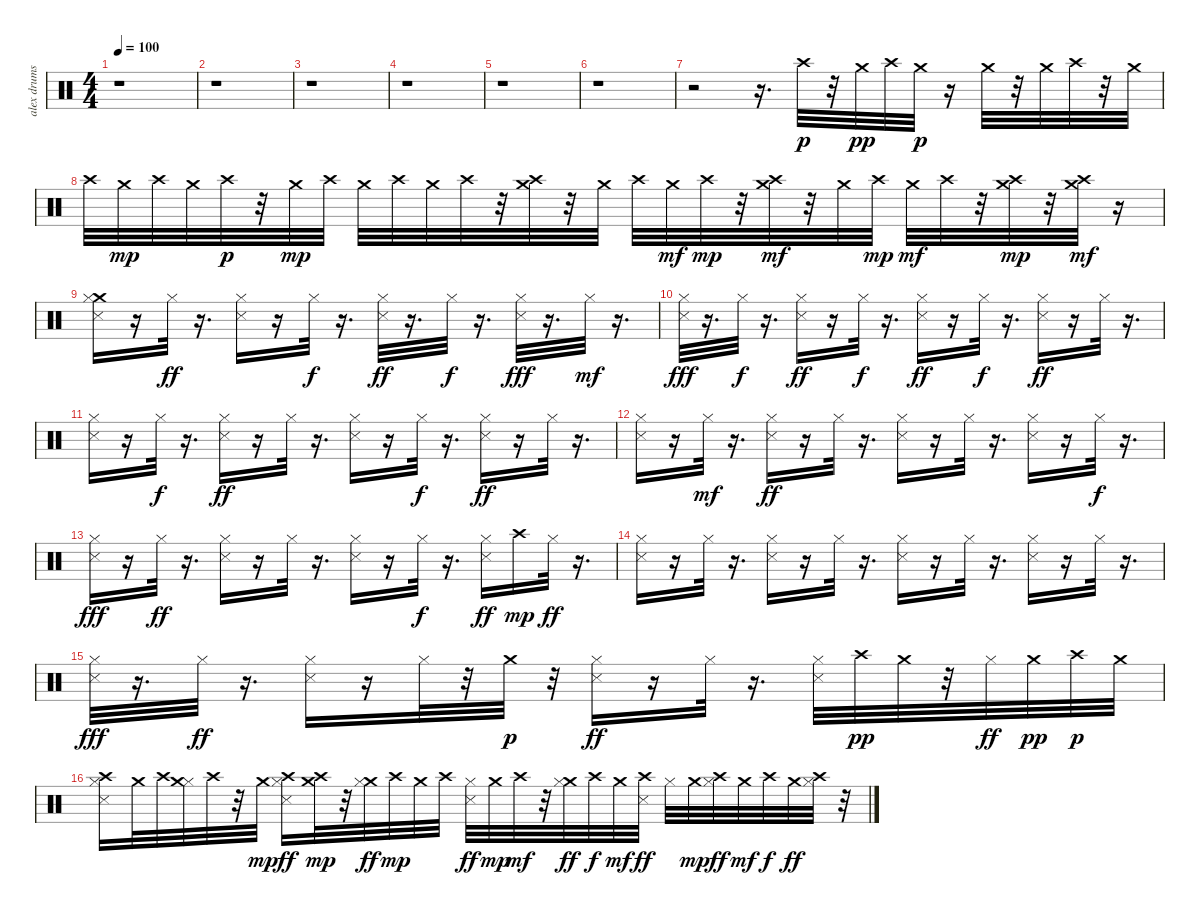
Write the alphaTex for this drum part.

\track ("alex drums" "alex drums") {instrument percussion}
\staff {score}
\articulation defaults
\ts (4 4)
\tempo 100
\clef neutral
\ks c
r.1{dy p} |
r.1 |
r.1 |
r.1 |
r.1 |
r.1 |
r.2 r.16{d} "Crash high (hit)".32 r.32 "Crash medium (hit)".32{dy pp} "Crash high (hit)".32 "Crash medium (hit)".32{dy p} r.16 "Crash medium (hit)".32 r.32 "Crash medium (hit)".32 "Crash high (hit)".32 r.32 "Crash medium (hit)".32 |
"Crash high (hit)".32 "Crash medium (hit)".32{dy mp} "Crash high (hit)".32 "Crash medium (hit)".32 "Crash high (hit)".32{dy p} r.32 "Crash medium (hit)".32{dy mp} "Crash high (hit)".32 "Crash medium (hit)".32 "Crash high (hit)".32 "Crash medium (hit)".32 "Crash high (hit)".32 r.32 ("Crash medium (hit)" "Crash high (hit)").32 r.32 "Crash medium (hit)".32 "Crash high (hit)".32 "Crash medium (hit)".32{dy mf} "Crash high (hit)".32{dy mp} r.32 ("Crash medium (hit)" "Crash high (hit)").32{dy mf} r.32 "Crash medium (hit)".32 "Crash high (hit)".32{dy mp} "Crash medium (hit)".32{dy mf} "Crash high (hit)".32 r.32 ("Crash medium (hit)" "Crash high (hit)").32{dy mp} r.32 ("Crash medium (hit)" "Crash high (hit)").32{dy mf} r.16 |
("Crash medium (hit)" "Snare (side stick) 3" "Hi-Hat (closed)").16 r.16 "Hi-Hat (closed)".32{dy ff} r.16{d} ("Snare (side stick) 3" "Hi-Hat (closed)").16 r.16 "Hi-Hat (closed)".32{dy f} r.16{d} ("Hi-Hat (closed)" "Snare (side stick) 3").32{dy ff} r.16{d} "Hi-Hat (closed)".32{dy f} r.16{d} ("Snare (side stick) 3" "Hi-Hat (closed)").32{dy fff} r.16{d} "Hi-Hat (closed)".32{dy mf} r.16{d} |
("Snare (side stick) 3" "Hi-Hat (closed)").32{dy fff} r.16{d} "Hi-Hat (closed)".32{dy f} r.16{d} ("Snare (side stick) 3" "Hi-Hat (closed)").16{dy ff} r.16 "Hi-Hat (closed)".32{dy f} r.16{d} ("Snare (side stick) 3" "Hi-Hat (closed)").16{dy ff} r.16 "Hi-Hat (closed)".32{dy f} r.16{d} ("Hi-Hat (closed)" "Snare (side stick) 3").16{dy ff} r.16 "Hi-Hat (closed)".32 r.16{d} |
("Snare (side stick) 3" "Hi-Hat (closed)").16 r.16 "Hi-Hat (closed)".32{dy f} r.16{d} ("Snare (side stick) 3" "Hi-Hat (closed)").16{dy ff} r.16 "Hi-Hat (closed)".32 r.16{d} ("Snare (side stick) 3" "Hi-Hat (closed)").16 r.16 "Hi-Hat (closed)".32{dy f} r.16{d} ("Snare (side stick) 3" "Hi-Hat (closed)").16{dy ff} r.16 "Hi-Hat (closed)".32 r.16{d} |
("Snare (side stick) 3" "Hi-Hat (closed)").16 r.16 "Hi-Hat (closed)".32{dy mf} r.16{d} ("Snare (side stick) 3" "Hi-Hat (closed)").16{dy ff} r.16 "Hi-Hat (closed)".32 r.16{d} ("Snare (side stick) 3" "Hi-Hat (closed)").16 r.16 "Hi-Hat (closed)".32 r.16{d} ("Snare (side stick) 3" "Hi-Hat (closed)").16 r.16 "Hi-Hat (closed)".32{dy f} r.16{d} |
("Snare (side stick) 3" "Hi-Hat (closed)").16{dy fff} r.16 "Hi-Hat (closed)".32{dy ff} r.16{d} ("Snare (side stick) 3" "Hi-Hat (closed)").16 r.16 "Hi-Hat (closed)".32 r.16{d} ("Snare (side stick) 3" "Hi-Hat (closed)").16 r.16 "Hi-Hat (closed)".32{dy f} r.16{d} ("Snare (side stick) 3" "Hi-Hat (closed)").16{dy ff} "Crash high (hit)".16{dy mp} "Hi-Hat (closed)".32{dy ff} r.16{d} |
("Snare (side stick) 3" "Hi-Hat (closed)").16 r.16 "Hi-Hat (closed)".32 r.16{d} ("Hi-Hat (closed)" "Snare (side stick) 3").16 r.16 "Hi-Hat (closed)".32 r.16{d} ("Hi-Hat (closed)" "Snare (side stick) 3").16 r.16 "Hi-Hat (closed)".32 r.16{d} ("Hi-Hat (closed)" "Snare (side stick) 3").16 r.16 "Hi-Hat (closed)".32 r.16{d} |
("Snare (side stick) 3" "Hi-Hat (closed)").32{dy fff} r.16{d} "Hi-Hat (closed)".32{dy ff} r.16{d} ("Snare (side stick) 3" "Hi-Hat (closed)").16 r.16 "Hi-Hat (closed)".32 r.32 "Crash medium (hit)".32{dy p} r.32 ("Hi-Hat (closed)" "Snare (side stick) 3").16{dy ff} r.16 "Hi-Hat (closed)".32 r.16{d} ("Snare (side stick) 3" "Hi-Hat (closed)").32 "Crash high (hit)".32{dy pp} "Crash medium (hit)".32 r.32 "Hi-Hat (closed)".32{dy ff} "Crash medium (hit)".32{dy pp} "Crash high (hit)".32{dy p} "Crash medium (hit)".32 |
("Snare (side stick) 3" "Hi-Hat (closed)" "Crash high (hit)").16 "Crash medium (hit)".32 "Crash high (hit)".32 ("Hi-Hat (closed)" "Crash medium (hit)").32 "Crash high (hit)".32 r.32 "Crash medium (hit)".32{dy mp} ("Crash high (hit)" "Snare (side stick) 3" "Hi-Hat (closed)").16{dy ff} ("Crash medium (hit)" "Crash high (hit)").32{dy mp} r.32 ("Crash medium (hit)" "Hi-Hat (closed)").32{dy ff} "Crash high (hit)".32{dy mp} "Crash medium (hit)".32 "Crash high (hit)".32 ("Hi-Hat (closed)" "Snare (side stick) 3").32{dy ff} "Crash medium (hit)".32{dy mp} "Crash high (hit)".32{dy mf} r.32 ("Crash medium (hit)" "Hi-Hat (closed)").32{dy ff} "Crash high (hit)".32{dy f} "Crash medium (hit)".32{dy mf} ("Crash high (hit)" "Snare (side stick) 3").32{dy ff} "Hi-Hat (closed)".32 "Crash medium (hit)".32{dy mp} ("Crash high (hit)" "Hi-Hat (closed)").32{dy ff} "Crash medium (hit)".32{dy mf} "Crash high (hit)".32{dy f} "Crash medium (hit)".32{dy ff} ("Hi-Hat (closed)" "Crash high (hit)").32 r.32
